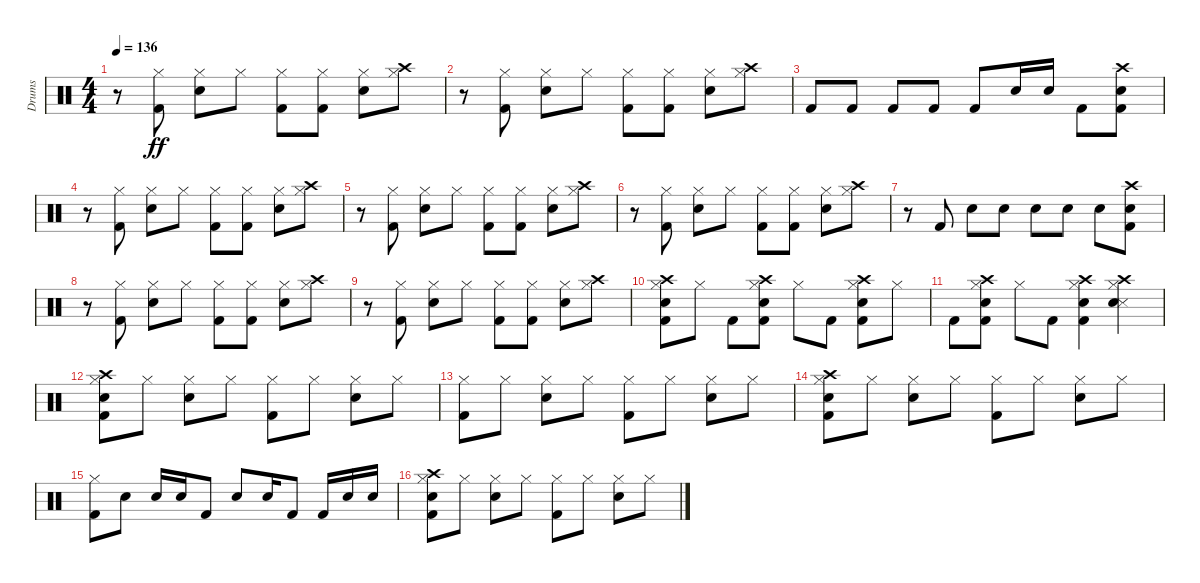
\track ("Drums" "Drums") {instrument percussion}
\staff {score}
\articulation defaults
\ts (4 4)
\tempo 136
\clef neutral
\ks c
r.8{dy ff} ("Kick (hit) 2" "Hi-Hat (closed)").8 ("Snare (hit) 2" "Hi-Hat (closed)").8 "Hi-Hat (closed)".8 ("Kick (hit) 2" "Hi-Hat (closed)").8 ("Kick (hit) 2" "Hi-Hat (closed)").8 ("Snare (hit) 2" "Hi-Hat (closed)").8 ("Hi-Hat (closed)" "Crash high (hit)").8 |
r.8 ("Kick (hit) 2" "Hi-Hat (closed)").8 ("Snare (hit) 2" "Hi-Hat (closed)").8 "Hi-Hat (closed)".8 ("Kick (hit) 2" "Hi-Hat (closed)").8 ("Kick (hit) 2" "Hi-Hat (closed)").8 ("Snare (hit) 2" "Hi-Hat (closed)").8 ("Hi-Hat (closed)" "Crash high (hit)").8 |
"Kick (hit) 2".8 "Kick (hit) 2".8 "Kick (hit) 2".8 "Kick (hit) 2".8 "Kick (hit) 2".8 "Snare (hit) 2".16 "Snare (hit) 2".16 "Kick (hit) 2".8 ("Kick (hit) 2" "Snare (hit) 2" "Crash high (hit)").8 |
r.8 ("Kick (hit) 2" "Hi-Hat (closed)").8 ("Snare (hit) 2" "Hi-Hat (closed)").8 "Hi-Hat (closed)".8 ("Kick (hit) 2" "Hi-Hat (closed)").8 ("Kick (hit) 2" "Hi-Hat (closed)").8 ("Snare (hit) 2" "Hi-Hat (closed)").8 ("Hi-Hat (closed)" "Crash high (hit)").8 |
r.8 ("Kick (hit) 2" "Hi-Hat (closed)").8 ("Snare (hit) 2" "Hi-Hat (closed)").8 "Hi-Hat (closed)".8 ("Kick (hit) 2" "Hi-Hat (closed)").8 ("Kick (hit) 2" "Hi-Hat (closed)").8 ("Snare (hit) 2" "Hi-Hat (closed)").8 ("Hi-Hat (closed)" "Crash high (hit)").8 |
r.8 ("Kick (hit) 2" "Hi-Hat (closed)").8 ("Snare (hit) 2" "Hi-Hat (closed)").8 "Hi-Hat (closed)".8 ("Kick (hit) 2" "Hi-Hat (closed)").8 ("Kick (hit) 2" "Hi-Hat (closed)").8 ("Snare (hit) 2" "Hi-Hat (closed)").8 ("Hi-Hat (closed)" "Crash high (hit)").8 |
r.8 "Kick (hit) 2".8 "Snare (hit) 2".8 "Snare (hit) 2".8 "Snare (hit) 2".8 "Snare (hit) 2".8 "Snare (hit) 2".8 ("Kick (hit) 2" "Snare (hit) 2" "Crash high (hit)").8 |
r.8 ("Kick (hit) 2" "Hi-Hat (closed)").8 ("Snare (hit) 2" "Hi-Hat (closed)").8 "Hi-Hat (closed)".8 ("Kick (hit) 2" "Hi-Hat (closed)").8 ("Kick (hit) 2" "Hi-Hat (closed)").8 ("Snare (hit) 2" "Hi-Hat (closed)").8 ("Hi-Hat (closed)" "Crash high (hit)").8 |
r.8 ("Kick (hit) 2" "Hi-Hat (closed)").8 ("Snare (hit) 2" "Hi-Hat (closed)").8 "Hi-Hat (closed)".8 ("Kick (hit) 2" "Hi-Hat (closed)").8 ("Kick (hit) 2" "Hi-Hat (closed)").8 ("Snare (hit) 2" "Hi-Hat (closed)").8 ("Hi-Hat (closed)" "Crash high (hit)").8 |
("Kick (hit) 2" "Snare (hit) 2" "Hi-Hat (closed)" "Crash high (hit)").8 "Hi-Hat (closed)".8 "Kick (hit) 2".8 ("Kick (hit) 2" "Snare (hit) 2" "Hi-Hat (closed)" "Crash high (hit)").8 "Hi-Hat (closed)".8 "Kick (hit) 2".8 ("Kick (hit) 2" "Snare (hit) 2" "Hi-Hat (closed)" "Crash high (hit)").8 "Hi-Hat (closed)".8 |
"Kick (hit) 2".8 ("Kick (hit) 2" "Snare (hit) 2" "Hi-Hat (closed)" "Crash high (hit)").8 "Hi-Hat (closed)".8 "Kick (hit) 2".8 ("Kick (hit) 2" "Snare (hit) 2" "Hi-Hat (closed)" "Crash high (hit)").4 ("Snare (side stick) 3" "Snare (hit) 2" "Hi-Hat (closed)" "Crash high (hit)").4 |
("Kick (hit) 2" "Snare (hit) 2" "Hi-Hat (closed)" "Crash high (hit)").8 "Hi-Hat (closed)".8 ("Snare (hit) 2" "Hi-Hat (closed)").8 "Hi-Hat (closed)".8 ("Kick (hit) 2" "Hi-Hat (closed)").8 "Hi-Hat (closed)".8 ("Snare (hit) 2" "Hi-Hat (closed)").8 "Hi-Hat (closed)".8 |
("Kick (hit) 2" "Hi-Hat (closed)").8 "Hi-Hat (closed)".8 ("Snare (hit) 2" "Hi-Hat (closed)").8 "Hi-Hat (closed)".8 ("Kick (hit) 2" "Hi-Hat (closed)").8 "Hi-Hat (closed)".8 ("Snare (hit) 2" "Hi-Hat (closed)").8 "Hi-Hat (closed)".8 |
("Kick (hit) 2" "Snare (hit) 2" "Hi-Hat (closed)" "Crash high (hit)").8 "Hi-Hat (closed)".8 ("Snare (hit) 2" "Hi-Hat (closed)").8 "Hi-Hat (closed)".8 ("Kick (hit) 2" "Hi-Hat (closed)").8 "Hi-Hat (closed)".8 ("Snare (hit) 2" "Hi-Hat (closed)").8 "Hi-Hat (closed)".8 |
("Kick (hit) 2" "Hi-Hat (closed)").8 "Snare (hit) 2".8 "Snare (hit) 2".16 "Snare (hit) 2".16 "Kick (hit) 2".8 "Snare (hit) 2".8 "Snare (hit) 2".16 "Kick (hit) 2".8 "Kick (hit) 2".16 "Snare (hit) 2".16 "Snare (hit) 2".16 |
("Kick (hit) 2" "Snare (hit) 2" "Hi-Hat (closed)" "Crash high (hit)").8 "Hi-Hat (closed)".8 ("Snare (hit) 2" "Hi-Hat (closed)").8 "Hi-Hat (closed)".8 ("Kick (hit) 2" "Hi-Hat (closed)").8 "Hi-Hat (closed)".8 ("Snare (hit) 2" "Hi-Hat (closed)").8 "Hi-Hat (closed)".8
